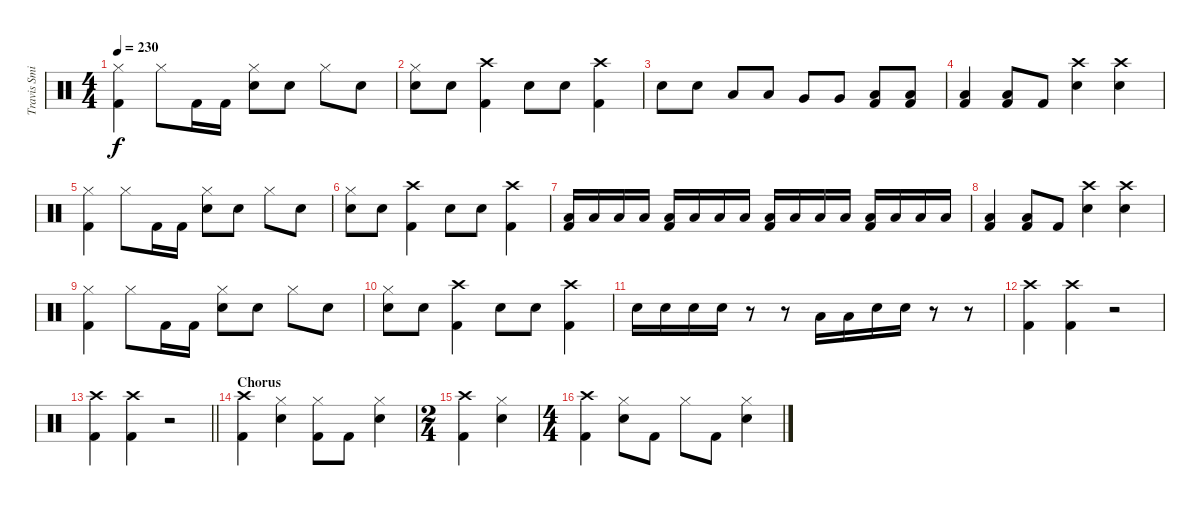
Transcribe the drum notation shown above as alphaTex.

\track ("Travis Smith (Drums)" "Travis Smi") {instrument percussion}
\staff {score}
\articulation defaults
\ts (4 4)
\tempo 230
\clef neutral
\ks c
("Hi-Hat (closed)" "Kick (hit) 2").4{dy f} "Hi-Hat (closed)".8 "Kick (hit) 2".16 "Kick (hit) 2".16 ("Hi-Hat (closed)" "Electric Snare (hit)").8 "Electric Snare (hit)".8 "Hi-Hat (closed)".8 "Electric Snare (hit)".8 |
("Hi-Hat (closed)" "Electric Snare (hit)").8 "Electric Snare (hit)".8 ("Crash high (hit)" "Kick (hit) 2").4 "Electric Snare (hit)".8 "Electric Snare (hit)".8 ("Crash high (hit)" "Kick (hit) 2").4 |
"Electric Snare (hit)".8 "Electric Snare (hit)".8 "Low Floor Tom (hit)".8 "Low Floor Tom (hit)".8 "Very Low Tom (hit)".8 "Very Low Tom (hit)".8 ("Low Floor Tom (hit)" "Kick (hit) 2").8 ("Low Floor Tom (hit)" "Kick (hit) 2").8 |
("Low Floor Tom (hit)" "Kick (hit) 2").4 ("Low Floor Tom (hit)" "Kick (hit) 2").8 "Kick (hit) 2".8 ("Crash high (hit)" "Electric Snare (hit)").4 ("Crash high (hit)" "Electric Snare (hit)").4 |
("Hi-Hat (closed)" "Kick (hit) 2").4 "Hi-Hat (closed)".8 "Kick (hit) 2".16 "Kick (hit) 2".16 ("Hi-Hat (closed)" "Electric Snare (hit)").8 "Electric Snare (hit)".8 "Hi-Hat (closed)".8 "Electric Snare (hit)".8 |
("Hi-Hat (closed)" "Electric Snare (hit)").8 "Electric Snare (hit)".8 ("Crash high (hit)" "Kick (hit) 2").4 "Electric Snare (hit)".8 "Electric Snare (hit)".8 ("Crash high (hit)" "Kick (hit) 2").4 |
("Low Floor Tom (hit)" "Kick (hit) 2").16 "Low Floor Tom (hit)".16 "Low Floor Tom (hit)".16 "Low Floor Tom (hit)".16 ("Low Floor Tom (hit)" "Kick (hit) 2").16 "Low Floor Tom (hit)".16 "Low Floor Tom (hit)".16 "Low Floor Tom (hit)".16 ("Low Floor Tom (hit)" "Kick (hit) 2").16 "Low Floor Tom (hit)".16 "Low Floor Tom (hit)".16 "Low Floor Tom (hit)".16 ("Low Floor Tom (hit)" "Kick (hit) 2").16 "Low Floor Tom (hit)".16 "Low Floor Tom (hit)".16 "Low Floor Tom (hit)".16 |
("Low Floor Tom (hit)" "Kick (hit) 2").4 ("Low Floor Tom (hit)" "Kick (hit) 2").8 "Kick (hit) 2".8 ("Crash high (hit)" "Electric Snare (hit)").4 ("Crash high (hit)" "Electric Snare (hit)").4 |
("Hi-Hat (closed)" "Kick (hit) 2").4 "Hi-Hat (closed)".8 "Kick (hit) 2".16 "Kick (hit) 2".16 ("Hi-Hat (closed)" "Electric Snare (hit)").8 "Electric Snare (hit)".8 "Hi-Hat (closed)".8 "Electric Snare (hit)".8 |
("Hi-Hat (closed)" "Electric Snare (hit)").8 "Electric Snare (hit)".8 ("Crash high (hit)" "Kick (hit) 2").4 "Electric Snare (hit)".8 "Electric Snare (hit)".8 ("Crash high (hit)" "Kick (hit) 2").4 |
"Electric Snare (hit)".16 "Electric Snare (hit)".16 "Electric Snare (hit)".16 "Electric Snare (hit)".16 r.8 r.8 "Low Floor Tom (hit)".16 "Low Floor Tom (hit)".16 "Electric Snare (hit)".16 "Electric Snare (hit)".16 r.8 r.8 |
("Crash high (hit)" "Kick (hit) 2").4 ("Crash high (hit)" "Kick (hit) 2").4 r.2 |
\barLineRight lightlight
("Crash high (hit)" "Kick (hit) 2").4 ("Crash high (hit)" "Kick (hit) 2").4 r.2 |
\section ("" "Chorus")
("Crash high (hit)" "Kick (hit) 2").4 ("Hi-Hat (closed)" "Electric Snare (hit)").4 ("Hi-Hat (closed)" "Kick (hit) 2").8 "Kick (hit) 2".8 ("Hi-Hat (closed)" "Electric Snare (hit)").4 |
\ts (2 4)
("Crash high (hit)" "Kick (hit) 2").4 ("Hi-Hat (closed)" "Electric Snare (hit)").4 |
\ts (4 4)
("Crash high (hit)" "Kick (hit) 2").4 ("Hi-Hat (closed)" "Electric Snare (hit)").8 "Kick (hit) 2".8 "Hi-Hat (closed)".8 "Kick (hit) 2".8 ("Hi-Hat (closed)" "Electric Snare (hit)").4
